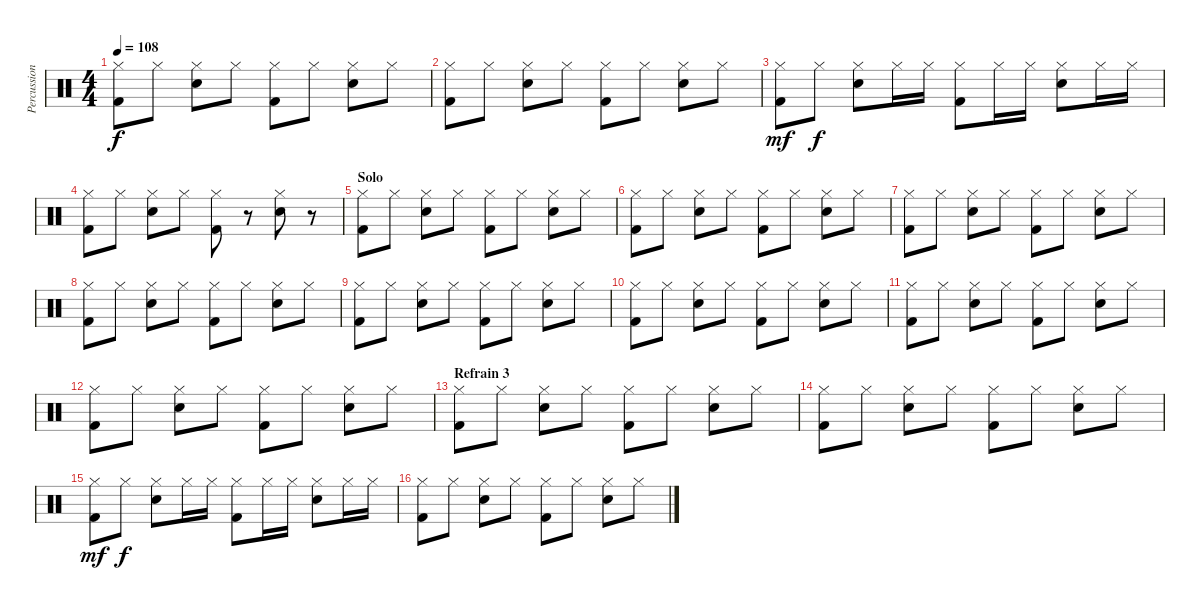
\track ("Percussions" "Percussion") {instrument percussion}
\staff {score}
\articulation defaults
\ts (4 4)
\tempo 108
\clef neutral
\ks c
("Hi-Hat (closed)" "Kick (hit) 2").8{dy f} "Hi-Hat (closed)".8 ("Hi-Hat (closed)" "Electric Snare (hit)").8 "Hi-Hat (closed)".8 ("Hi-Hat (closed)" "Kick (hit) 2").8 "Hi-Hat (closed)".8 ("Hi-Hat (closed)" "Electric Snare (hit)").8 "Hi-Hat (closed)".8 |
("Hi-Hat (closed)" "Kick (hit) 2").8 "Hi-Hat (closed)".8 ("Hi-Hat (closed)" "Electric Snare (hit)").8 "Hi-Hat (closed)".8 ("Hi-Hat (closed)" "Kick (hit) 2").8 "Hi-Hat (closed)".8 ("Hi-Hat (closed)" "Electric Snare (hit)").8 "Hi-Hat (closed)".8 |
("Hi-Hat (closed)" "Kick (hit) 2").8{dy mf} "Hi-Hat (closed)".8{dy f} ("Hi-Hat (closed)" "Electric Snare (hit)").8 "Hi-Hat (closed)".16 "Hi-Hat (closed)".16 ("Hi-Hat (closed)" "Kick (hit) 2").8 "Hi-Hat (closed)".16 "Hi-Hat (closed)".16 ("Hi-Hat (closed)" "Electric Snare (hit)").8 "Hi-Hat (closed)".16 "Hi-Hat (closed)".16 |
("Hi-Hat (closed)" "Kick (hit) 2").8 "Hi-Hat (closed)".8 ("Hi-Hat (closed)" "Electric Snare (hit)").8 "Hi-Hat (closed)".8 ("Hi-Hat (closed)" "Kick (hit) 2").8 r.8 ("Hi-Hat (closed)" "Electric Snare (hit)").8 r.8 |
\section ("" "Solo")
("Hi-Hat (closed)" "Kick (hit) 2").8 "Hi-Hat (closed)".8 ("Hi-Hat (closed)" "Electric Snare (hit)").8 "Hi-Hat (closed)".8 ("Hi-Hat (closed)" "Kick (hit) 2").8 "Hi-Hat (closed)".8 ("Hi-Hat (closed)" "Electric Snare (hit)").8 "Hi-Hat (closed)".8 |
("Hi-Hat (closed)" "Kick (hit) 2").8 "Hi-Hat (closed)".8 ("Hi-Hat (closed)" "Electric Snare (hit)").8 "Hi-Hat (closed)".8 ("Hi-Hat (closed)" "Kick (hit) 2").8 "Hi-Hat (closed)".8 ("Hi-Hat (closed)" "Electric Snare (hit)").8 "Hi-Hat (closed)".8 |
("Hi-Hat (closed)" "Kick (hit) 2").8 "Hi-Hat (closed)".8 ("Hi-Hat (closed)" "Electric Snare (hit)").8 "Hi-Hat (closed)".8 ("Hi-Hat (closed)" "Kick (hit) 2").8 "Hi-Hat (closed)".8 ("Hi-Hat (closed)" "Electric Snare (hit)").8 "Hi-Hat (closed)".8 |
("Hi-Hat (closed)" "Kick (hit) 2").8 "Hi-Hat (closed)".8 ("Hi-Hat (closed)" "Electric Snare (hit)").8 "Hi-Hat (closed)".8 ("Hi-Hat (closed)" "Kick (hit) 2").8 "Hi-Hat (closed)".8 ("Hi-Hat (closed)" "Electric Snare (hit)").8 "Hi-Hat (closed)".8 |
("Hi-Hat (closed)" "Kick (hit) 2").8 "Hi-Hat (closed)".8 ("Hi-Hat (closed)" "Electric Snare (hit)").8 "Hi-Hat (closed)".8 ("Hi-Hat (closed)" "Kick (hit) 2").8 "Hi-Hat (closed)".8 ("Hi-Hat (closed)" "Electric Snare (hit)").8 "Hi-Hat (closed)".8 |
("Hi-Hat (closed)" "Kick (hit) 2").8 "Hi-Hat (closed)".8 ("Hi-Hat (closed)" "Electric Snare (hit)").8 "Hi-Hat (closed)".8 ("Hi-Hat (closed)" "Kick (hit) 2").8 "Hi-Hat (closed)".8 ("Hi-Hat (closed)" "Electric Snare (hit)").8 "Hi-Hat (closed)".8 |
("Hi-Hat (closed)" "Kick (hit) 2").8 "Hi-Hat (closed)".8 ("Hi-Hat (closed)" "Electric Snare (hit)").8 "Hi-Hat (closed)".8 ("Hi-Hat (closed)" "Kick (hit) 2").8 "Hi-Hat (closed)".8 ("Hi-Hat (closed)" "Electric Snare (hit)").8 "Hi-Hat (closed)".8 |
("Hi-Hat (closed)" "Kick (hit) 2").8 "Hi-Hat (closed)".8 ("Hi-Hat (closed)" "Electric Snare (hit)").8 "Hi-Hat (closed)".8 ("Hi-Hat (closed)" "Kick (hit) 2").8 "Hi-Hat (closed)".8 ("Hi-Hat (closed)" "Electric Snare (hit)").8 "Hi-Hat (closed)".8 |
\section ("" "Refrain 3")
("Hi-Hat (closed)" "Kick (hit) 2").8 "Hi-Hat (closed)".8 ("Hi-Hat (closed)" "Electric Snare (hit)").8 "Hi-Hat (closed)".8 ("Hi-Hat (closed)" "Kick (hit) 2").8 "Hi-Hat (closed)".8 ("Hi-Hat (closed)" "Electric Snare (hit)").8 "Hi-Hat (closed)".8 |
("Hi-Hat (closed)" "Kick (hit) 2").8 "Hi-Hat (closed)".8 ("Hi-Hat (closed)" "Electric Snare (hit)").8 "Hi-Hat (closed)".8 ("Hi-Hat (closed)" "Kick (hit) 2").8 "Hi-Hat (closed)".8 ("Hi-Hat (closed)" "Electric Snare (hit)").8 "Hi-Hat (closed)".8 |
("Hi-Hat (closed)" "Kick (hit) 2").8{dy mf} "Hi-Hat (closed)".8{dy f} ("Hi-Hat (closed)" "Electric Snare (hit)").8 "Hi-Hat (closed)".16 "Hi-Hat (closed)".16 ("Hi-Hat (closed)" "Kick (hit) 2").8 "Hi-Hat (closed)".16 "Hi-Hat (closed)".16 ("Hi-Hat (closed)" "Electric Snare (hit)").8 "Hi-Hat (closed)".16 "Hi-Hat (closed)".16 |
("Hi-Hat (closed)" "Kick (hit) 2").8 "Hi-Hat (closed)".8 ("Hi-Hat (closed)" "Electric Snare (hit)").8 "Hi-Hat (closed)".8 ("Hi-Hat (closed)" "Kick (hit) 2").8 "Hi-Hat (closed)".8 ("Hi-Hat (closed)" "Electric Snare (hit)").8 "Hi-Hat (closed)".8
